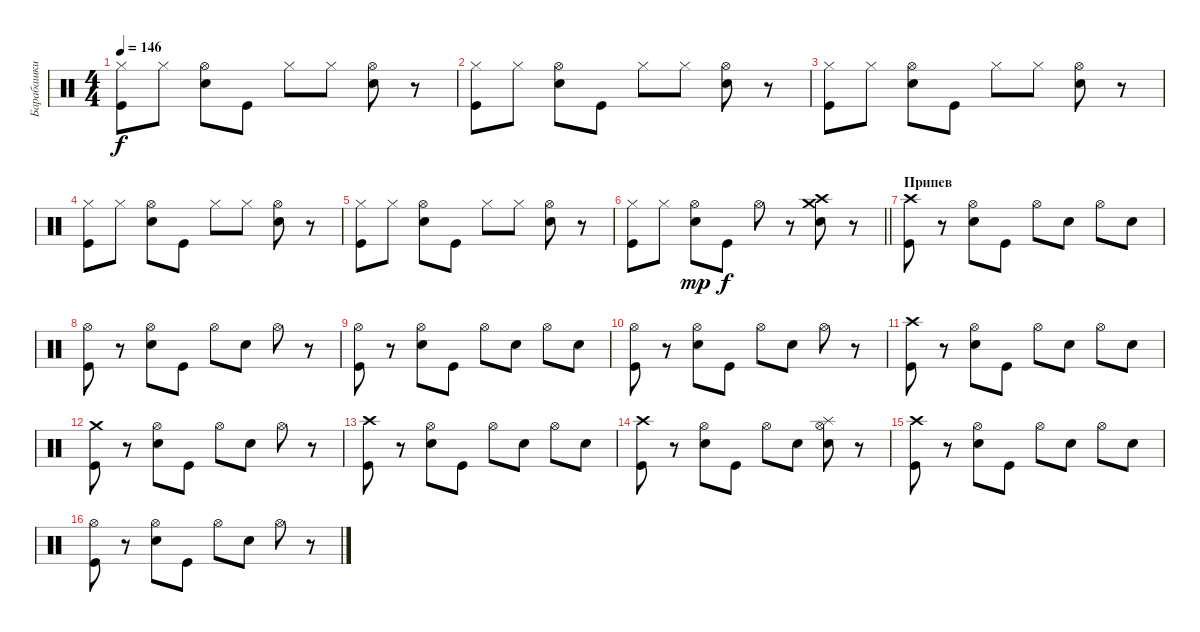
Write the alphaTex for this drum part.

\track ("Барабашки" "Барабашки") {instrument percussion}
\staff {score}
\articulation defaults
\ts (4 4)
\tempo 146
\clef neutral
\ks c
("Hi-Hat (closed)" "Kick (hit)").8{dy f} "Hi-Hat (closed)".8 ("Hi-Hat (open)" "Snare (hit) 2").8 "Kick (hit)".8 "Hi-Hat (closed)".8 "Hi-Hat (closed)".8 ("Hi-Hat (open)" "Snare (hit) 2").8 r.8 |
("Hi-Hat (closed)" "Kick (hit)").8 "Hi-Hat (closed)".8 ("Hi-Hat (open)" "Snare (hit) 2").8 "Kick (hit)".8 "Hi-Hat (closed)".8 "Hi-Hat (closed)".8 ("Hi-Hat (open)" "Snare (hit) 2").8 r.8 |
("Hi-Hat (closed)" "Kick (hit)").8 "Hi-Hat (closed)".8 ("Hi-Hat (open)" "Snare (hit) 2").8 "Kick (hit)".8 "Hi-Hat (closed)".8 "Hi-Hat (closed)".8 ("Hi-Hat (open)" "Snare (hit) 2").8 r.8 |
("Hi-Hat (closed)" "Kick (hit)").8 "Hi-Hat (closed)".8 ("Hi-Hat (open)" "Snare (hit) 2").8 "Kick (hit)".8 "Hi-Hat (closed)".8 "Hi-Hat (closed)".8 ("Hi-Hat (open)" "Snare (hit) 2").8 r.8 |
("Hi-Hat (closed)" "Kick (hit)").8 "Hi-Hat (closed)".8 ("Hi-Hat (open)" "Snare (hit) 2").8 "Kick (hit)".8 "Hi-Hat (closed)".8 "Hi-Hat (closed)".8 ("Hi-Hat (open)" "Snare (hit) 2").8 r.8 |
\barLineRight lightlight
("Hi-Hat (closed)" "Kick (hit)").8 "Hi-Hat (closed)".8 ("Hi-Hat (open)" "Snare (hit) 2").8{dy mp} "Kick (hit)".8{dy f} "Hi-Hat (open)".8 r.8 ("Crash medium (hit)" "Snare (hit) 2" "Crash high (hit)").8 r.8 |
\section ("" "Припев")
("Crash high (hit)" "Kick (hit)").8 r.8 ("Hi-Hat (open)" "Snare (hit) 2").8 "Kick (hit)".8 "Hi-Hat (open)".8 "Snare (hit) 2".8 "Hi-Hat (open)".8 "Snare (hit) 2".8 |
("Hi-Hat (open)" "Kick (hit)").8 r.8 ("Hi-Hat (open)" "Snare (hit) 2").8 "Kick (hit)".8 "Hi-Hat (open)".8 "Snare (hit) 2".8 "Hi-Hat (open)".8 r.8 |
("Hi-Hat (open)" "Kick (hit)").8 r.8 ("Hi-Hat (open)" "Snare (hit) 2").8 "Kick (hit)".8 "Hi-Hat (open)".8 "Snare (hit) 2".8 "Hi-Hat (open)".8 "Snare (hit) 2".8 |
("Hi-Hat (open)" "Kick (hit)").8 r.8 ("Hi-Hat (open)" "Snare (hit) 2").8 "Kick (hit)".8 "Hi-Hat (open)".8 "Snare (hit) 2".8 "Hi-Hat (open)".8 r.8 |
("Crash high (hit)" "Kick (hit)").8 r.8 ("Hi-Hat (open)" "Snare (hit) 2").8 "Kick (hit)".8 "Hi-Hat (open)".8 "Snare (hit) 2".8 "Hi-Hat (open)".8 "Snare (hit) 2".8 |
("Crash medium (hit)" "Kick (hit)").8 r.8 ("Hi-Hat (open)" "Snare (hit) 2").8 "Kick (hit)".8 "Hi-Hat (open)".8 "Snare (hit) 2".8 "Hi-Hat (open)".8 r.8 |
("Crash high (hit)" "Kick (hit)").8 r.8 ("Hi-Hat (open)" "Snare (hit) 2").8 "Kick (hit)".8 "Hi-Hat (open)".8 "Snare (hit) 2".8 "Hi-Hat (open)".8 "Snare (hit) 2".8 |
("Crash high (hit)" "Kick (hit)").8 r.8 ("Hi-Hat (open)" "Snare (hit) 2").8 "Kick (hit)".8 "Hi-Hat (open)".8 "Snare (hit) 2".8 ("Hi-Hat (open)" "Splash (hit)" "Hand Clap (hit)").8 r.8 |
("Crash high (hit)" "Kick (hit)").8 r.8 ("Hi-Hat (open)" "Snare (hit) 2").8 "Kick (hit)".8 "Hi-Hat (open)".8 "Snare (hit) 2".8 "Hi-Hat (open)".8 "Snare (hit) 2".8 |
("Hi-Hat (open)" "Kick (hit)").8 r.8 ("Hi-Hat (open)" "Snare (hit) 2").8 "Kick (hit)".8 "Hi-Hat (open)".8 "Snare (hit) 2".8 "Hi-Hat (open)".8 r.8
